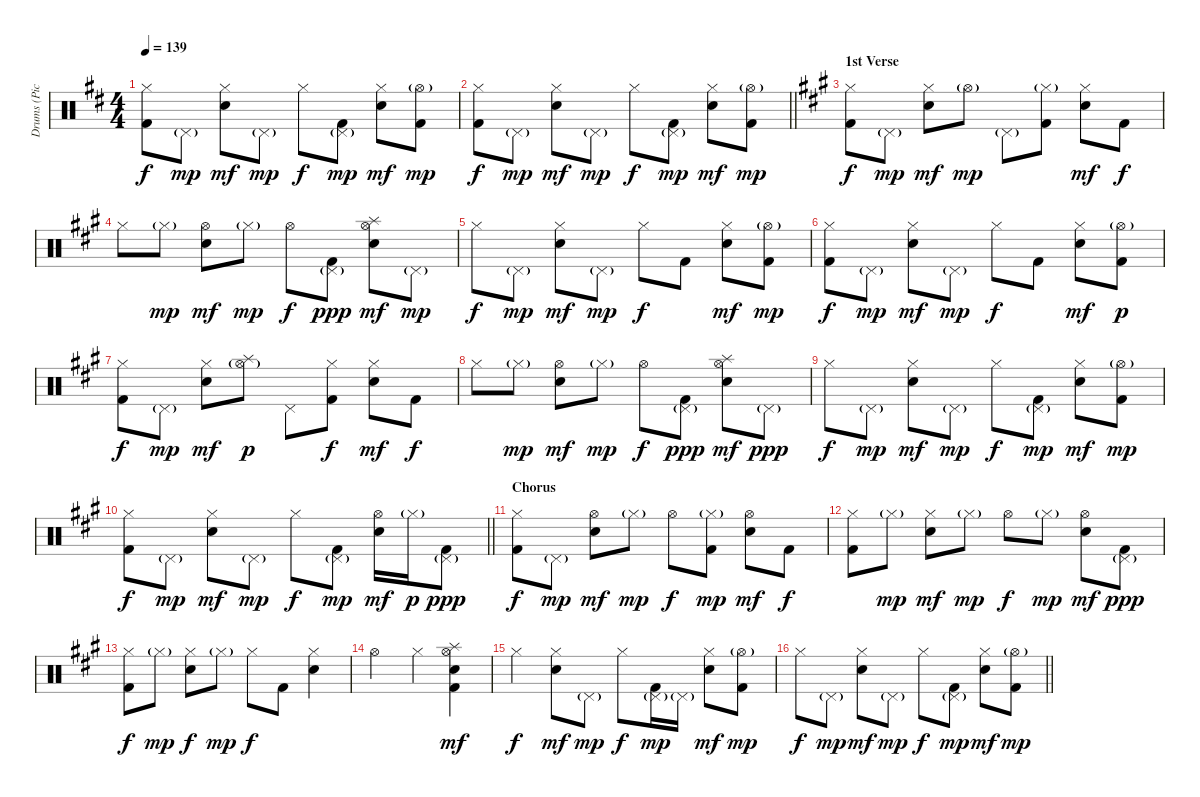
\track ("Drums (Pick)" "Drums (Pic") {instrument percussion}
\staff {score}
\articulation defaults
\ts (4 4)
\tempo 139
\clef neutral
\ks d
("Kick (hit) 2" "Hi-Hat (closed)").8{dy f} "Pedal Hi-Hat (hit)"{g}.8{dy mp} ("Snare (hit) 2" "Hi-Hat (closed)").8{dy mf} "Pedal Hi-Hat (hit)"{g}.8{dy mp} "Hi-Hat (closed)".8{dy f} ("Pedal Hi-Hat (hit)"{g} "Kick (hit) 2").8{dy mp} ("Snare (hit) 2" "Hi-Hat (closed)").8{dy mf} ("Kick (hit) 2" "Hi-Hat (open)"{g}).8{dy mp} |
\barLineRight lightlight
("Kick (hit) 2" "Hi-Hat (closed)").8{dy f} "Pedal Hi-Hat (hit)"{g}.8{dy mp} ("Snare (hit) 2" "Hi-Hat (closed)").8{dy mf} "Pedal Hi-Hat (hit)"{g}.8{dy mp} "Hi-Hat (closed)".8{dy f} ("Pedal Hi-Hat (hit)"{g} "Kick (hit) 2").8{dy mp} ("Snare (hit) 2" "Hi-Hat (closed)").8{dy mf} ("Kick (hit) 2" "Hi-Hat (open)"{g}).8{dy mp} |
\section ("" "1st Verse")
\ks a
("Kick (hit) 2" "Hi-Hat (closed)").8{dy f} "Pedal Hi-Hat (hit)"{g}.8{dy mp} ("Snare (hit) 2" "Hi-Hat (closed)").8{dy mf} "Hi-Hat (open)"{g}.8{dy mp} "Pedal Hi-Hat (hit)"{g}.8 ("Hi-Hat (closed)"{g} "Kick (hit) 2").8 ("Hi-Hat (closed)" "Snare (hit) 2").8{dy mf} "Kick (hit) 2".8{dy f} |
"Hi-Hat (closed)".8 "Hi-Hat (closed)"{g}.8{dy mp} ("Hi-Hat (open)" "Snare (hit) 2").8{dy mf} "Hi-Hat (closed)"{g}.8{dy mp} "Hi-Hat (open)".8{dy f} ("Kick (hit) 2" "Pedal Hi-Hat (hit)"{g}).8{dy ppp} ("Hi-Hat (open)" "Snare (hit) 2" "Splash (hit)").8{dy mf} "Pedal Hi-Hat (hit)"{g}.8{dy mp} |
"Hi-Hat (closed)".8{dy f} "Pedal Hi-Hat (hit)"{g}.8{dy mp} ("Hi-Hat (closed)" "Snare (hit) 2").8{dy mf} "Pedal Hi-Hat (hit)"{g}.8{dy mp} "Hi-Hat (closed)".8{dy f} "Kick (hit) 2".8 ("Hi-Hat (closed)" "Snare (hit) 2").8{dy mf} ("Kick (hit) 2" "Hi-Hat (open)"{g}).8{dy mp} |
("Hi-Hat (closed)" "Kick (hit) 2").8{dy f} "Pedal Hi-Hat (hit)"{g}.8{dy mp} ("Snare (hit) 2" "Hi-Hat (closed)").8{dy mf} "Pedal Hi-Hat (hit)"{g}.8{dy mp} "Hi-Hat (closed)".8{dy f} "Kick (hit) 2".8 ("Snare (hit) 2" "Hi-Hat (closed)").8{dy mf} ("Hi-Hat (open)"{g} "Kick (hit) 2").8{dy p} |
("Kick (hit) 2" "Hi-Hat (closed)").8{dy f} "Pedal Hi-Hat (hit)"{g}.8{dy mp} ("Hi-Hat (closed)" "Snare (hit) 2").8{dy mf} ("Hi-Hat (open)"{g} "Splash (hit)").8{dy p} "Pedal Hi-Hat (hit)".8 ("Hi-Hat (closed)" "Kick (hit) 2").8{dy f} ("Snare (hit) 2" "Hi-Hat (closed)").8{dy mf} "Kick (hit) 2".8{dy f} |
"Hi-Hat (closed)".8 "Hi-Hat (closed)"{g}.8{dy mp} ("Hi-Hat (open)" "Snare (hit) 2").8{dy mf} "Hi-Hat (closed)"{g}.8{dy mp} "Hi-Hat (open)".8{dy f} ("Kick (hit) 2" "Pedal Hi-Hat (hit)"{g}).8{dy ppp} ("Splash (hit)" "Hi-Hat (open)" "Snare (hit) 2").8{dy mf} "Pedal Hi-Hat (hit)"{g}.8{dy ppp} |
"Hi-Hat (closed)".8{dy f} "Pedal Hi-Hat (hit)"{g}.8{dy mp} ("Hi-Hat (closed)" "Snare (hit) 2").8{dy mf} "Pedal Hi-Hat (hit)"{g}.8{dy mp} "Hi-Hat (closed)".8{dy f} ("Kick (hit) 2" "Pedal Hi-Hat (hit)"{g}).8{dy mp} ("Snare (hit) 2" "Hi-Hat (closed)").8{dy mf} ("Hi-Hat (open)"{g} "Kick (hit) 2").8{dy mp} |
\barLineRight lightlight
("Hi-Hat (closed)" "Kick (hit) 2").8{dy f} "Pedal Hi-Hat (hit)"{g}.8{dy mp} ("Hi-Hat (closed)" "Snare (hit) 2").8{dy mf} "Pedal Hi-Hat (hit)"{g}.8{dy mp} "Hi-Hat (closed)".8{dy f} ("Pedal Hi-Hat (hit)"{g} "Kick (hit) 2").8{dy mp} ("Snare (hit) 2" "Hi-Hat (open)").16{dy mf} "Hi-Hat (closed)"{g}.16{dy p} ("Kick (hit) 2" "Pedal Hi-Hat (hit)"{g}).8{dy ppp} |
\section ("" "Chorus")
("Hi-Hat (closed)" "Kick (hit) 2").8{dy f} "Pedal Hi-Hat (hit)"{g}.8{dy mp} ("Hi-Hat (open)" "Snare (hit) 2").8{dy mf} "Hi-Hat (closed)"{g}.8{dy mp} "Hi-Hat (open)".8{dy f} ("Kick (hit) 2" "Hi-Hat (closed)"{g}).8{dy mp} ("Hi-Hat (open)" "Snare (hit) 2").8{dy mf} "Kick (hit) 2".8{dy f} |
("Hi-Hat (closed)" "Kick (hit) 2").8 "Hi-Hat (closed)"{g}.8{dy mp} ("Snare (hit) 2" "Hi-Hat (closed)").8{dy mf} "Hi-Hat (closed)"{g}.8{dy mp} "Hi-Hat (open)".8{dy f} "Hi-Hat (closed)"{g}.8{dy mp} ("Hi-Hat (open)" "Snare (hit) 2").8{dy mf} ("Kick (hit) 2" "Pedal Hi-Hat (hit)"{g}).8{dy ppp} |
("Hi-Hat (closed)" "Kick (hit) 2").8{dy f} "Hi-Hat (closed)"{g}.8{dy mp} ("Snare (hit) 2" "Hi-Hat (closed)").8{dy f} "Hi-Hat (closed)"{g}.8{dy mp} "Hi-Hat (closed)".8{dy f} "Kick (hit) 2".8 ("Snare (hit) 2" "Hi-Hat (closed)").4 |
"Hi-Hat (open)".2 "Hi-Hat (closed)".4 ("Kick (hit) 2" "Snare (hit) 2" "Hi-Hat (open)" "Splash (hit)").4{dy mf} |
"Hi-Hat (closed)".4{dy f} ("Hi-Hat (closed)" "Snare (hit) 2").8{dy mf} "Pedal Hi-Hat (hit)"{g}.8{dy mp} "Hi-Hat (closed)".8{dy f} ("Pedal Hi-Hat (hit)"{g} "Kick (hit) 2").16{dy mp} "Pedal Hi-Hat (hit)"{g}.16 ("Snare (hit) 2" "Hi-Hat (closed)").8{dy mf} ("Hi-Hat (open)"{g} "Kick (hit) 2").8{dy mp} |
\barLineRight lightlight "Hi-Hat (closed)".8{dy f} "Pedal Hi-Hat (hit)"{g}.8{dy mp}
("Snare (hit) 2" "Hi-Hat (closed)").8{dy mf} "Pedal Hi-Hat (hit)"{g}.8{dy mp} "Hi-Hat (closed)".8{dy f} ("Pedal Hi-Hat (hit)"{g} "Kick (hit) 2").8{dy mp} ("Snare (hit) 2" "Hi-Hat (closed)").8{dy mf} ("Kick (hit) 2" "Hi-Hat (open)"{g}).8{dy mp}
